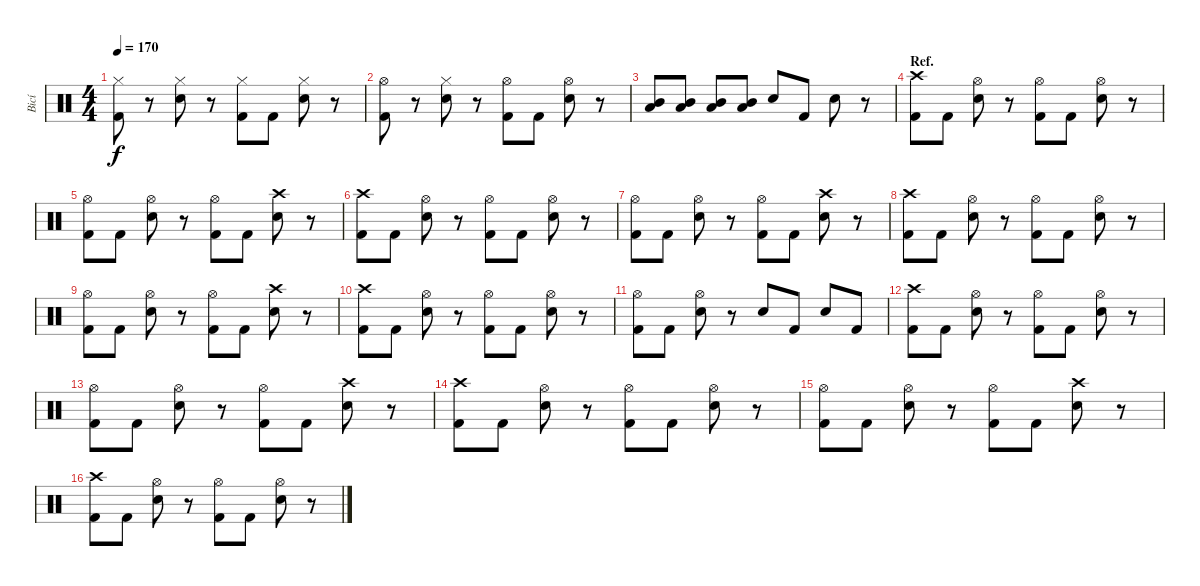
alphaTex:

\track ("Bicí" "Bicí") {instrument percussion}
\staff {score}
\articulation defaults
\ts (4 4)
\tempo 170
\clef neutral
\ks c
("Hi-Hat (closed)" "Kick (hit) 2").8{dy f} r.8 ("Hi-Hat (closed)" "Snare (hit) 2").8 r.8 ("Hi-Hat (closed)" "Kick (hit) 2").8 "Kick (hit) 2".8 ("Hi-Hat (closed)" "Snare (hit) 2").8 r.8 |
("Hi-Hat (open)" "Kick (hit) 2").8 r.8 ("Hi-Hat (closed)" "Snare (hit) 2").8 r.8 ("Hi-Hat (open)" "Kick (hit) 2").8 "Kick (hit) 2".8 ("Hi-Hat (open)" "Snare (hit) 2").8 r.8 |
("Low Tom (hit)" "Mid Tom (hit)").8 ("Low Tom (hit)" "Mid Tom (hit)").8 ("Low Tom (hit)" "Mid Tom (hit)").8 ("Low Tom (hit)" "Mid Tom (hit)").8 "Snare (hit) 2".8 "Kick (hit) 2".8 "Snare (hit) 2".8 r.8 |
\section ("" "Ref.")
("Crash high (hit)" "Kick (hit) 2").8 "Kick (hit) 2".8 ("Hi-Hat (open)" "Snare (hit) 2").8 r.8 ("Hi-Hat (open)" "Kick (hit) 2").8 "Kick (hit) 2".8 ("Hi-Hat (open)" "Snare (hit) 2").8 r.8 |
("Hi-Hat (open)" "Kick (hit) 2").8 "Kick (hit) 2".8 ("Hi-Hat (open)" "Snare (hit) 2").8 r.8 ("Hi-Hat (open)" "Kick (hit) 2").8 "Kick (hit) 2".8 ("Crash high (hit)" "Snare (hit) 2").8 r.8 |
("Crash high (hit)" "Kick (hit) 2").8 "Kick (hit) 2".8 ("Hi-Hat (open)" "Snare (hit) 2").8 r.8 ("Hi-Hat (open)" "Kick (hit) 2").8 "Kick (hit) 2".8 ("Hi-Hat (open)" "Snare (hit) 2").8 r.8 |
("Hi-Hat (open)" "Kick (hit) 2").8 "Kick (hit) 2".8 ("Hi-Hat (open)" "Snare (hit) 2").8 r.8 ("Hi-Hat (open)" "Kick (hit) 2").8 "Kick (hit) 2".8 ("Crash high (hit)" "Snare (hit) 2").8 r.8 |
("Crash high (hit)" "Kick (hit) 2").8 "Kick (hit) 2".8 ("Hi-Hat (open)" "Snare (hit) 2").8 r.8 ("Hi-Hat (open)" "Kick (hit) 2").8 "Kick (hit) 2".8 ("Hi-Hat (open)" "Snare (hit) 2").8 r.8 |
("Hi-Hat (open)" "Kick (hit) 2").8 "Kick (hit) 2".8 ("Hi-Hat (open)" "Snare (hit) 2").8 r.8 ("Hi-Hat (open)" "Kick (hit) 2").8 "Kick (hit) 2".8 ("Crash high (hit)" "Snare (hit) 2").8 r.8 |
("Crash high (hit)" "Kick (hit) 2").8 "Kick (hit) 2".8 ("Hi-Hat (open)" "Snare (hit) 2").8 r.8 ("Hi-Hat (open)" "Kick (hit) 2").8 "Kick (hit) 2".8 ("Hi-Hat (open)" "Snare (hit) 2").8 r.8 |
("Hi-Hat (open)" "Kick (hit) 2").8 "Kick (hit) 2".8 ("Hi-Hat (open)" "Snare (hit) 2").8 r.8 "Snare (hit) 2".8 "Kick (hit) 2".8 "Snare (hit) 2".8 "Kick (hit) 2".8 |
("Crash high (hit)" "Kick (hit) 2").8 "Kick (hit) 2".8 ("Hi-Hat (open)" "Snare (hit) 2").8 r.8 ("Hi-Hat (open)" "Kick (hit) 2").8 "Kick (hit) 2".8 ("Hi-Hat (open)" "Snare (hit) 2").8 r.8 |
("Hi-Hat (open)" "Kick (hit) 2").8 "Kick (hit) 2".8 ("Hi-Hat (open)" "Snare (hit) 2").8 r.8 ("Hi-Hat (open)" "Kick (hit) 2").8 "Kick (hit) 2".8 ("Crash high (hit)" "Snare (hit) 2").8 r.8 |
("Crash high (hit)" "Kick (hit) 2").8 "Kick (hit) 2".8 ("Hi-Hat (open)" "Snare (hit) 2").8 r.8 ("Hi-Hat (open)" "Kick (hit) 2").8 "Kick (hit) 2".8 ("Hi-Hat (open)" "Snare (hit) 2").8 r.8 |
("Hi-Hat (open)" "Kick (hit) 2").8 "Kick (hit) 2".8 ("Hi-Hat (open)" "Snare (hit) 2").8 r.8 ("Hi-Hat (open)" "Kick (hit) 2").8 "Kick (hit) 2".8 ("Crash high (hit)" "Snare (hit) 2").8 r.8 |
("Crash high (hit)" "Kick (hit) 2").8 "Kick (hit) 2".8 ("Hi-Hat (open)" "Snare (hit) 2").8 r.8 ("Hi-Hat (open)" "Kick (hit) 2").8 "Kick (hit) 2".8 ("Hi-Hat (open)" "Snare (hit) 2").8 r.8
